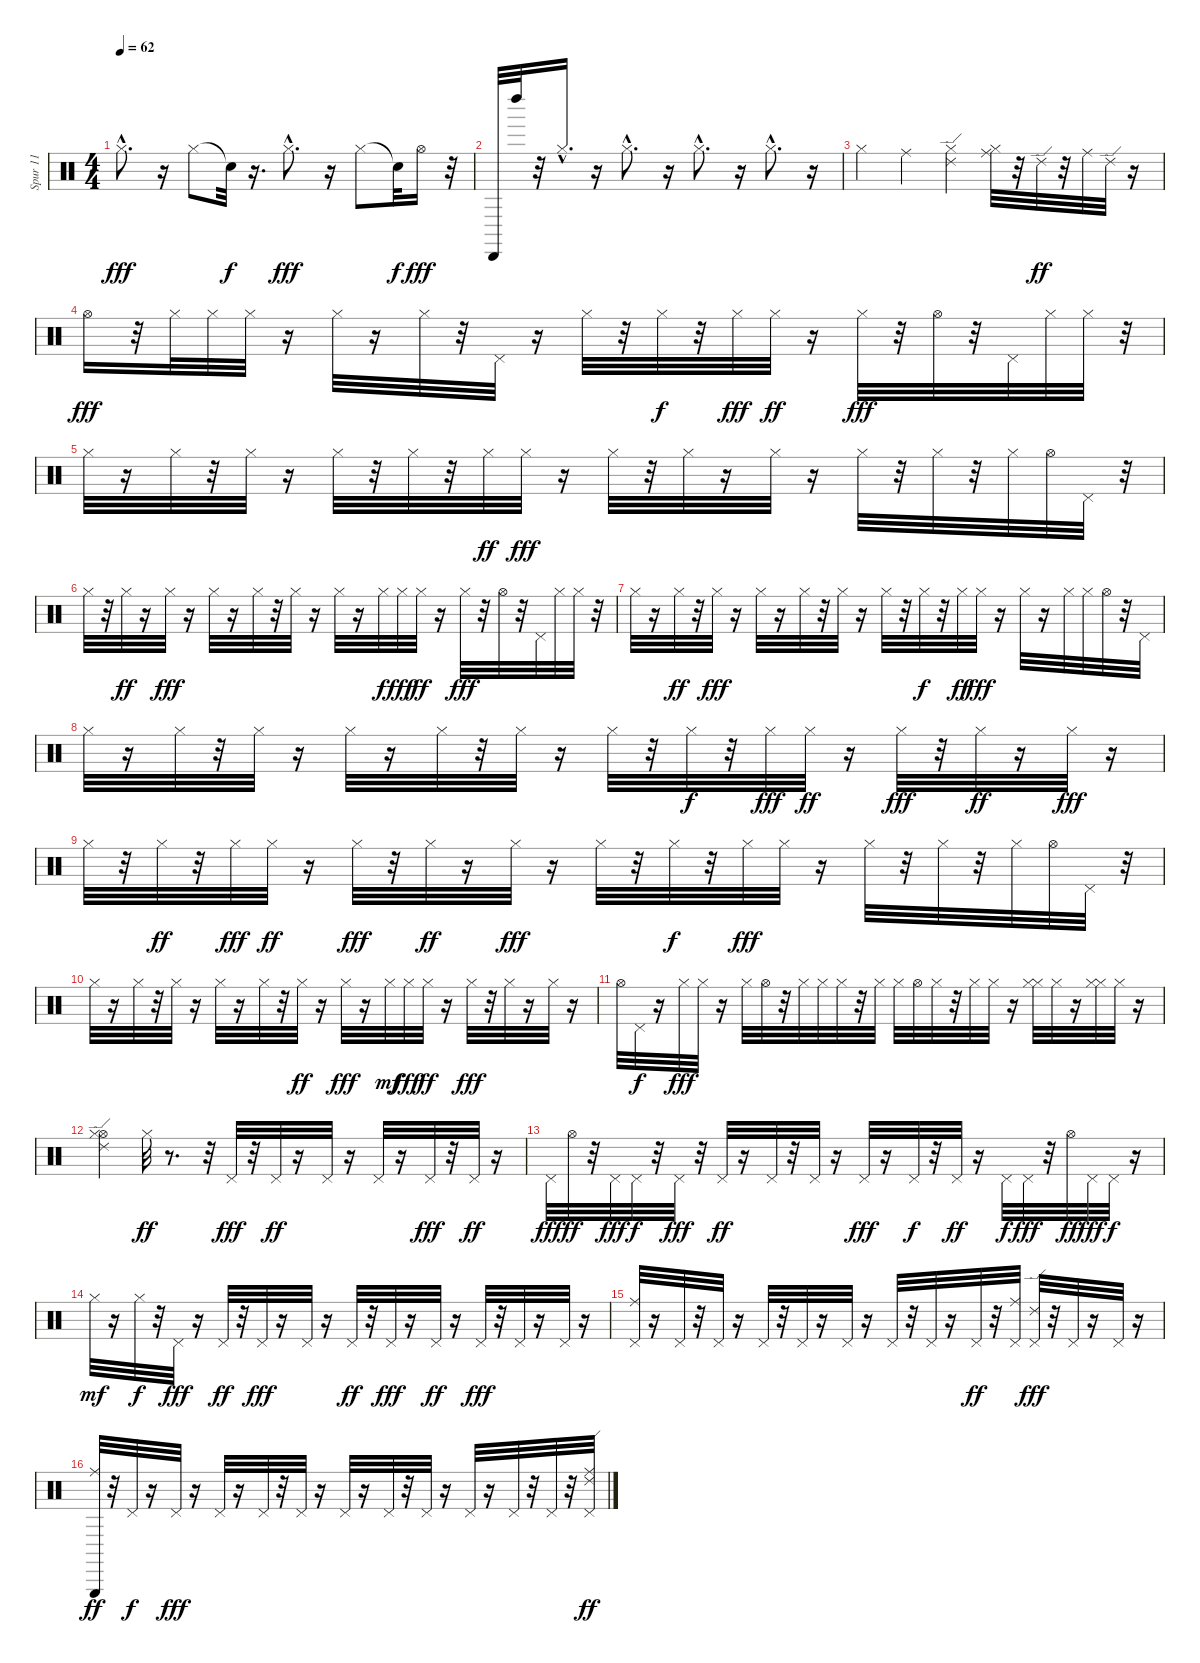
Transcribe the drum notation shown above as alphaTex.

\track ("Spur 11" "Spur 11") {instrument percussion}
\staff {score}
\articulation defaults
\ts (4 4)
\tempo 62
\clef neutral
\ks c "Hi-Hat (closed)"{hac}.8{d dy fff}
r.16 "Hi-Hat (closed)".8 "Snare (hit)"{t}.32{dy f} r.16{d} "Hi-Hat (closed)"{hac}.8{d dy fff} r.16 "Hi-Hat (closed)".8 "Snare (hit)"{t}.32{dy f} "Hi-Hat (open)".16{dy fff} r.32 |
"Cabasa (hit)".32 "Left Maraca (hit)".32 r.32 "Hi-Hat (closed)"{hac}.16{d} r.16 "Hi-Hat (closed)"{hac}.8{d} r.16 "Hi-Hat (closed)"{hac}.8{d} r.16 "Hi-Hat (closed)"{hac}.8{d} r.16 |
"Hi-Hat (closed)".4 "Ride (middle)".4 ("Hi-Hat (closed)" "Ride (edge) 2").4 ("Ride (middle)" "Hi-Hat (closed)").32 r.32 "Ride (edge) 2".32{dy ff} r.32 "Ride (middle)".32 "Ride (edge) 2".32 r.16 |
"Hi-Hat (open)".16{dy fff} r.32 "Hi-Hat (closed)".32 "Hi-Hat (closed)".32 "Hi-Hat (closed)".32 r.16 "Hi-Hat (closed)".32 r.16 "Hi-Hat (closed)".32 r.32 "Pedal Hi-Hat (hit)".32 r.16 "Hi-Hat (closed)".32 r.32 "Hi-Hat (closed)".32{dy f} r.32 "Hi-Hat (closed)".32{dy fff} "Hi-Hat (closed)".32{dy ff} r.16 "Hi-Hat (closed)".32{dy fff} r.32 "Hi-Hat (open)".32 r.32 "Pedal Hi-Hat (hit)".32 "Hi-Hat (closed)".32 "Hi-Hat (closed)".32 r.32 |
"Hi-Hat (closed)".32 r.16 "Hi-Hat (closed)".32 r.32 "Hi-Hat (closed)".32 r.16 "Hi-Hat (closed)".32 r.32 "Hi-Hat (closed)".32 r.32 "Hi-Hat (closed)".32{dy ff} "Hi-Hat (closed)".32{dy fff} r.16 "Hi-Hat (closed)".32 r.32 "Hi-Hat (closed)".32 r.16 "Hi-Hat (closed)".32 r.16 "Hi-Hat (closed)".32 r.32 "Hi-Hat (closed)".32 r.32 "Hi-Hat (closed)".32 "Hi-Hat (open)".32 "Pedal Hi-Hat (hit)".32 r.32 |
"Hi-Hat (closed)".32 r.32 "Hi-Hat (closed)".32{dy ff} r.16 "Hi-Hat (closed)".32{dy fff} r.16 "Hi-Hat (closed)".32 r.16 "Hi-Hat (closed)".32 r.32 "Hi-Hat (closed)".32 r.16 "Hi-Hat (closed)".32 r.16 "Hi-Hat (closed)".32{dy f} "Hi-Hat (closed)".32{dy fff} "Hi-Hat (closed)".32{dy ff} r.16 "Hi-Hat (closed)".32{dy fff} r.32 "Hi-Hat (open)".32 r.32 "Pedal Hi-Hat (hit)".32 "Hi-Hat (closed)".32 "Hi-Hat (closed)".32 r.32 |
"Hi-Hat (closed)".32 r.16 "Hi-Hat (closed)".32{dy ff} r.32 "Hi-Hat (closed)".32{dy fff} r.16 "Hi-Hat (closed)".32 r.16 "Hi-Hat (closed)".32 r.32 "Hi-Hat (closed)".32 r.16 "Hi-Hat (closed)".32 r.32 "Hi-Hat (closed)".32{dy f} r.32 "Hi-Hat (closed)".32{dy ff} "Hi-Hat (closed)".32{dy fff} r.16 "Hi-Hat (closed)".32 r.16 "Hi-Hat (closed)".32 "Hi-Hat (closed)".32 "Hi-Hat (open)".32 r.32 "Pedal Hi-Hat (hit)".32 |
"Hi-Hat (closed)".32 r.16 "Hi-Hat (closed)".32 r.32 "Hi-Hat (closed)".32 r.16 "Hi-Hat (closed)".32 r.16 "Hi-Hat (closed)".32 r.32 "Hi-Hat (closed)".32 r.16 "Hi-Hat (closed)".32 r.32 "Hi-Hat (closed)".32{dy f} r.32 "Hi-Hat (closed)".32{dy fff} "Hi-Hat (closed)".32{dy ff} r.16 "Hi-Hat (closed)".32{dy fff} r.32 "Hi-Hat (closed)".32{dy ff} r.16 "Hi-Hat (closed)".32{dy fff} r.16 |
"Hi-Hat (closed)".32 r.32 "Hi-Hat (closed)".32{dy ff} r.32 "Hi-Hat (closed)".32{dy fff} "Hi-Hat (closed)".32{dy ff} r.16 "Hi-Hat (closed)".32{dy fff} r.32 "Hi-Hat (closed)".32{dy ff} r.16 "Hi-Hat (closed)".32{dy fff} r.16 "Hi-Hat (closed)".32 r.32 "Hi-Hat (closed)".32{dy f} r.32 "Hi-Hat (closed)".32{dy fff} "Hi-Hat (closed)".32 r.16 "Hi-Hat (closed)".32 r.32 "Hi-Hat (closed)".32 r.32 "Hi-Hat (closed)".32 "Hi-Hat (open)".32 "Pedal Hi-Hat (hit)".32 r.32 |
"Hi-Hat (closed)".32 r.16 "Hi-Hat (closed)".32 r.32 "Hi-Hat (closed)".32 r.16 "Hi-Hat (closed)".32 r.16 "Hi-Hat (closed)".32 r.32 "Hi-Hat (closed)".32{dy ff} r.16 "Hi-Hat (closed)".32{dy fff} r.16 "Hi-Hat (closed)".32{dy mf} "Hi-Hat (closed)".32{dy fff} "Hi-Hat (closed)".32{dy ff} r.16 "Hi-Hat (closed)".32{dy fff} r.32 "Hi-Hat (closed)".32 r.16 "Hi-Hat (closed)".32 r.16 |
"Hi-Hat (open)".32 "Pedal Hi-Hat (hit)".32{dy f} r.16 "Hi-Hat (closed)".32{dy fff} "Hi-Hat (closed)".32 r.16 "Hi-Hat (closed)".32 "Hi-Hat (open)".32 r.32 "Hi-Hat (closed)".32 "Hi-Hat (closed)".32 "Hi-Hat (closed)".32 r.32 "Hi-Hat (closed)".32 "Hi-Hat (closed)".32 "Hi-Hat (open)".32 "Hi-Hat (closed)".32 r.32 "Hi-Hat (closed)".32 "Hi-Hat (closed)".32 r.16 ("Hi-Hat (closed)" "Hi-Hat (closed)").32 "Hi-Hat (closed)".32 r.16 ("Hi-Hat (closed)" "Hi-Hat (closed)").32 "Hi-Hat (closed)".32 r.16 |
("Hi-Hat (open)" "Ride (edge) 2" "Hi-Hat (closed)").4 "Hi-Hat (closed)".32{dy ff} r.8{d} r.32 "Pedal Hi-Hat (hit)".32{dy fff} r.32 "Pedal Hi-Hat (hit)".32{dy ff} r.16 "Pedal Hi-Hat (hit)".32 r.16 "Pedal Hi-Hat (hit)".32 r.16 "Pedal Hi-Hat (hit)".32{dy fff} r.32 "Pedal Hi-Hat (hit)".32{dy ff} r.16 |
"Pedal Hi-Hat (hit)".32{dy fff} "Hi-Hat (open)".32{dy ff} r.32 "Pedal Hi-Hat (hit)".32{dy fff} "Pedal Hi-Hat (hit)".32{dy f} r.32 "Pedal Hi-Hat (hit)".32{dy fff} r.32 "Pedal Hi-Hat (hit)".32{dy ff} r.16 "Pedal Hi-Hat (hit)".32 r.32 "Pedal Hi-Hat (hit)".32 r.16 "Pedal Hi-Hat (hit)".32{dy fff} r.16 "Pedal Hi-Hat (hit)".32{dy f} r.32 "Pedal Hi-Hat (hit)".32{dy ff} r.16 "Pedal Hi-Hat (hit)".32{dy f} "Pedal Hi-Hat (hit)".32{dy fff} r.32 "Hi-Hat (open)".32{dy ff} "Pedal Hi-Hat (hit)".32{dy fff} "Pedal Hi-Hat (hit)".32{dy f} r.16 |
"Hi-Hat (closed)".32{dy mf} r.16 "Hi-Hat (closed)".32{dy f} r.32 "Pedal Hi-Hat (hit)".32{dy fff} r.16 "Pedal Hi-Hat (hit)".32{dy ff} r.32 "Pedal Hi-Hat (hit)".32{dy fff} r.16 "Pedal Hi-Hat (hit)".32 r.16 "Pedal Hi-Hat (hit)".32{dy ff} r.32 "Pedal Hi-Hat (hit)".32{dy fff} r.16 "Pedal Hi-Hat (hit)".32{dy ff} r.16 "Pedal Hi-Hat (hit)".32{dy fff} r.32 "Pedal Hi-Hat (hit)".32 r.16 "Pedal Hi-Hat (hit)".32 r.16 |
("Ride (middle)" "Pedal Hi-Hat (hit)").32 r.16 "Pedal Hi-Hat (hit)".32 r.32 "Pedal Hi-Hat (hit)".32 r.16 "Pedal Hi-Hat (hit)".32 r.32 "Pedal Hi-Hat (hit)".32 r.16 "Pedal Hi-Hat (hit)".32 r.16 "Pedal Hi-Hat (hit)".32 r.32 "Pedal Hi-Hat (hit)".32 r.16 "Pedal Hi-Hat (hit)".32{dy ff} r.32 ("Ride (middle)" "Pedal Hi-Hat (hit)").32 ("Ride (edge) 2" "Pedal Hi-Hat (hit)").32{dy fff} r.32 "Pedal Hi-Hat (hit)".32 r.16 "Pedal Hi-Hat (hit)".32 r.16 |
("Triangle (hit)" "Ride (middle)").32{dy ff} r.32 "Pedal Hi-Hat (hit)".32{dy f} r.16 "Pedal Hi-Hat (hit)".32{dy fff} r.16 "Pedal Hi-Hat (hit)".32 r.16 "Pedal Hi-Hat (hit)".32 r.32 "Pedal Hi-Hat (hit)".32 r.16 "Pedal Hi-Hat (hit)".32 r.16 "Pedal Hi-Hat (hit)".32 r.32 "Pedal Hi-Hat (hit)".32 r.16 "Pedal Hi-Hat (hit)".32 r.16 "Pedal Hi-Hat (hit)".32 r.32 "Pedal Hi-Hat (hit)".32 r.32 ("Ride (middle)" "Ride (edge) 2" "Pedal Hi-Hat (hit)").32{dy ff}
